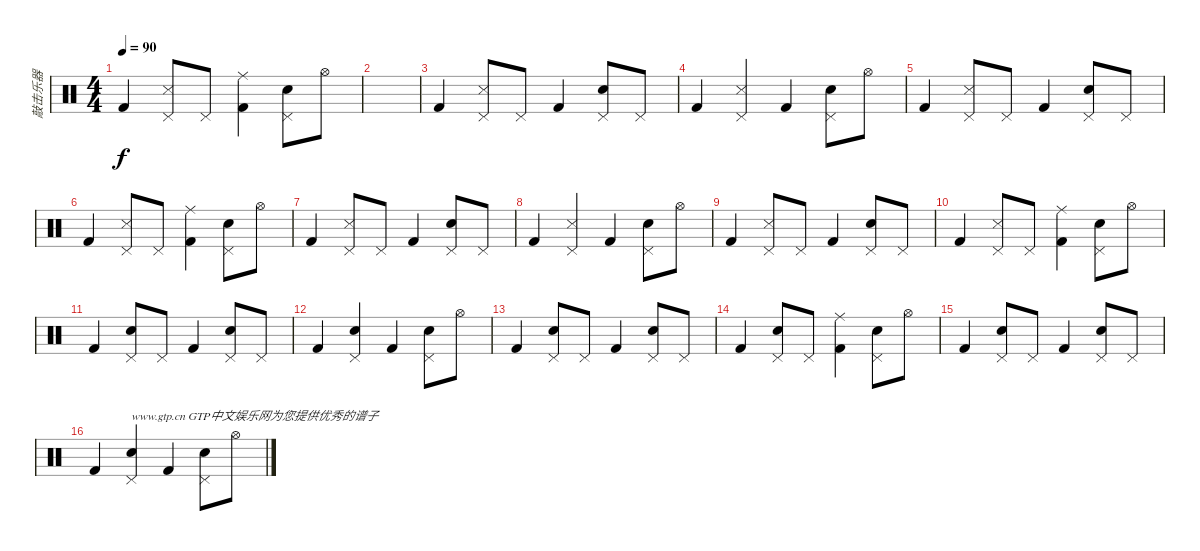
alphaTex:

\track ("敲击乐器" "敲击乐器") {instrument percussion}
\staff {score}
\articulation defaults
\ts (4 4)
\tempo 90
\clef neutral
\ks c "Kick (hit) 2".4{dy f}
("Metronome (hit)" "Pedal Hi-Hat (hit)").8 "Pedal Hi-Hat (hit)".8 ("Ride (middle)" "Kick (hit) 2").4 ("Snare (hit) 2" "Pedal Hi-Hat (hit)").8 "Hi-Hat (open)".8 |
|
"Kick (hit) 2".4 ("Metronome (hit)" "Pedal Hi-Hat (hit)").8 "Pedal Hi-Hat (hit)".8 "Kick (hit) 2".4 ("Snare (hit) 2" "Pedal Hi-Hat (hit)").8 "Pedal Hi-Hat (hit)".8 |
"Kick (hit) 2".4 ("Metronome (hit)" "Pedal Hi-Hat (hit)").4 "Kick (hit) 2".4 ("Snare (hit) 2" "Pedal Hi-Hat (hit)").8 "Hi-Hat (open)".8 |
"Kick (hit) 2".4 ("Metronome (hit)" "Pedal Hi-Hat (hit)").8 "Pedal Hi-Hat (hit)".8 "Kick (hit) 2".4 ("Snare (hit) 2" "Pedal Hi-Hat (hit)").8 "Pedal Hi-Hat (hit)".8 |
"Kick (hit) 2".4 ("Metronome (hit)" "Pedal Hi-Hat (hit)").8 "Pedal Hi-Hat (hit)".8 ("Ride (middle)" "Kick (hit) 2").4 ("Snare (hit) 2" "Pedal Hi-Hat (hit)").8 "Hi-Hat (open)".8 |
"Kick (hit) 2".4 ("Metronome (hit)" "Pedal Hi-Hat (hit)").8 "Pedal Hi-Hat (hit)".8 "Kick (hit) 2".4 ("Snare (hit) 2" "Pedal Hi-Hat (hit)").8 "Pedal Hi-Hat (hit)".8 |
"Kick (hit) 2".4 ("Metronome (hit)" "Pedal Hi-Hat (hit)").4 "Kick (hit) 2".4 ("Snare (hit) 2" "Pedal Hi-Hat (hit)").8 "Hi-Hat (open)".8 |
"Kick (hit) 2".4 ("Metronome (hit)" "Pedal Hi-Hat (hit)").8 "Pedal Hi-Hat (hit)".8 "Kick (hit) 2".4 ("Snare (hit) 2" "Pedal Hi-Hat (hit)").8 "Pedal Hi-Hat (hit)".8 |
"Kick (hit) 2".4 ("Metronome (hit)" "Pedal Hi-Hat (hit)").8 "Pedal Hi-Hat (hit)".8 ("Ride (middle)" "Kick (hit) 2").4 ("Snare (hit) 2" "Pedal Hi-Hat (hit)").8 "Hi-Hat (open)".8 |
"Kick (hit) 2".4 ("Snare (hit) 2" "Pedal Hi-Hat (hit)").8 "Pedal Hi-Hat (hit)".8 "Kick (hit) 2".4 ("Snare (hit) 2" "Pedal Hi-Hat (hit)").8 "Pedal Hi-Hat (hit)".8 |
"Kick (hit) 2".4 ("Snare (hit) 2" "Pedal Hi-Hat (hit)").4 "Kick (hit) 2".4 ("Snare (hit) 2" "Pedal Hi-Hat (hit)").8 "Hi-Hat (open)".8 |
"Kick (hit) 2".4 ("Snare (hit) 2" "Pedal Hi-Hat (hit)").8 "Pedal Hi-Hat (hit)".8 "Kick (hit) 2".4 ("Snare (hit) 2" "Pedal Hi-Hat (hit)").8 "Pedal Hi-Hat (hit)".8 |
"Kick (hit) 2".4 ("Snare (hit) 2" "Pedal Hi-Hat (hit)").8 "Pedal Hi-Hat (hit)".8 ("Ride (middle)" "Kick (hit) 2").4 ("Snare (hit) 2" "Pedal Hi-Hat (hit)").8 "Hi-Hat (open)".8 |
"Kick (hit) 2".4 ("Snare (hit) 2" "Pedal Hi-Hat (hit)").8 "Pedal Hi-Hat (hit)".8 "Kick (hit) 2".4 ("Snare (hit) 2" "Pedal Hi-Hat (hit)").8 "Pedal Hi-Hat (hit)".8 |
"Kick (hit) 2".4 ("Snare (hit) 2" "Pedal Hi-Hat (hit)").4{txt "www.gtp.cn GTP中文娱乐网为您提供优秀的谱子"} "Kick (hit) 2".4 ("Snare (hit) 2" "Pedal Hi-Hat (hit)").8 "Hi-Hat (open)".8
